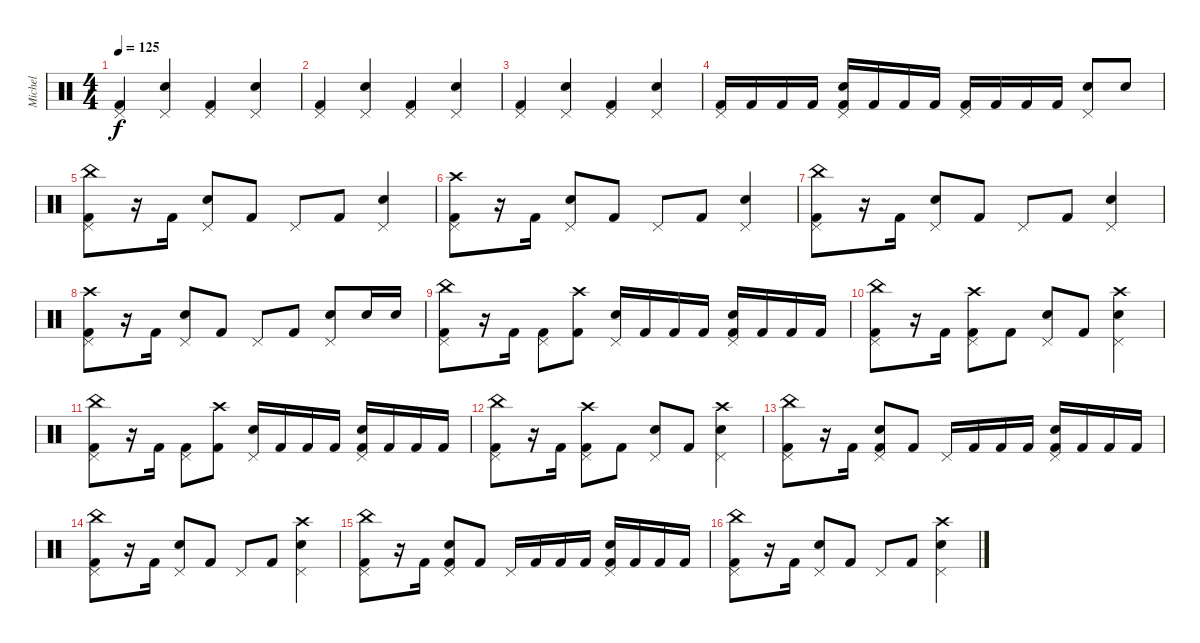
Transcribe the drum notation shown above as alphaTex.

\track ("Michel" "Michel") {instrument percussion}
\staff {score}
\articulation defaults
\ts (4 4)
\tempo 125
\clef neutral
\ks c
("Kick (hit) 2" "Pedal Hi-Hat (hit)").4{dy f} ("Snare (hit) 2" "Pedal Hi-Hat (hit)").4 ("Kick (hit) 2" "Pedal Hi-Hat (hit)").4 ("Snare (hit) 2" "Pedal Hi-Hat (hit)").4 |
("Kick (hit) 2" "Pedal Hi-Hat (hit)").4 ("Snare (hit) 2" "Pedal Hi-Hat (hit)").4 ("Kick (hit) 2" "Pedal Hi-Hat (hit)").4 ("Snare (hit) 2" "Pedal Hi-Hat (hit)").4 |
("Kick (hit) 2" "Pedal Hi-Hat (hit)").4 ("Snare (hit) 2" "Pedal Hi-Hat (hit)").4 ("Kick (hit) 2" "Pedal Hi-Hat (hit)").4 ("Snare (hit) 2" "Pedal Hi-Hat (hit)").4 |
("Kick (hit) 2" "Pedal Hi-Hat (hit)").16 "Kick (hit) 2".16 "Kick (hit) 2".16 "Kick (hit) 2".16 ("Snare (hit) 2" "Kick (hit) 2" "Pedal Hi-Hat (hit)").16 "Kick (hit) 2".16 "Kick (hit) 2".16 "Kick (hit) 2".16 ("Kick (hit) 2" "Pedal Hi-Hat (hit)").16 "Kick (hit) 2".16 "Kick (hit) 2".16 "Kick (hit) 2".16 ("Snare (hit) 2" "Pedal Hi-Hat (hit)").8 "Snare (hit) 2".8 |
("China (hit)" "Kick (hit) 2" "Pedal Hi-Hat (hit)").8 r.16 "Kick (hit) 2".16 ("Snare (hit) 2" "Pedal Hi-Hat (hit)").8 "Kick (hit) 2".8 "Pedal Hi-Hat (hit)".8 "Kick (hit) 2".8 ("Snare (hit) 2" "Pedal Hi-Hat (hit)").4 |
("Crash high (hit)" "Kick (hit) 2" "Pedal Hi-Hat (hit)").8 r.16 "Kick (hit) 2".16 ("Snare (hit) 2" "Pedal Hi-Hat (hit)").8 "Kick (hit) 2".8 "Pedal Hi-Hat (hit)".8 "Kick (hit) 2".8 ("Snare (hit) 2" "Pedal Hi-Hat (hit)").4 |
("China (hit)" "Kick (hit) 2" "Pedal Hi-Hat (hit)").8 r.16 "Kick (hit) 2".16 ("Snare (hit) 2" "Pedal Hi-Hat (hit)").8 "Kick (hit) 2".8 "Pedal Hi-Hat (hit)".8 "Kick (hit) 2".8 ("Snare (hit) 2" "Pedal Hi-Hat (hit)").4 |
("Crash high (hit)" "Kick (hit) 2" "Pedal Hi-Hat (hit)").8 r.16 "Kick (hit) 2".16 ("Snare (hit) 2" "Pedal Hi-Hat (hit)").8 "Kick (hit) 2".8 "Pedal Hi-Hat (hit)".8 "Kick (hit) 2".8 ("Snare (hit) 2" "Pedal Hi-Hat (hit)").8 "Snare (hit) 2".16 "Snare (hit) 2".16 |
("China (hit)" "Kick (hit) 2" "Pedal Hi-Hat (hit)").8 r.16 "Kick (hit) 2".16 ("Kick (hit) 2" "Pedal Hi-Hat (hit)").8 ("Crash high (hit)" "Kick (hit) 2").8 ("Snare (hit) 2" "Pedal Hi-Hat (hit)").16 "Kick (hit) 2".16 "Kick (hit) 2".16 "Kick (hit) 2".16 ("Snare (hit) 2" "Kick (hit) 2" "Pedal Hi-Hat (hit)").16 "Kick (hit) 2".16 "Kick (hit) 2".16 "Kick (hit) 2".16 |
("China (hit)" "Kick (hit) 2" "Pedal Hi-Hat (hit)").8 r.16 "Kick (hit) 2".16 ("Crash high (hit)" "Kick (hit) 2" "Pedal Hi-Hat (hit)").8 "Kick (hit) 2".8 ("Snare (hit) 2" "Pedal Hi-Hat (hit)").8 "Kick (hit) 2".8 ("Crash high (hit)" "Snare (hit) 2" "Pedal Hi-Hat (hit)").4 |
("China (hit)" "Kick (hit) 2" "Pedal Hi-Hat (hit)").8 r.16 "Kick (hit) 2".16 ("Kick (hit) 2" "Pedal Hi-Hat (hit)").8 ("Crash high (hit)" "Kick (hit) 2").8 ("Snare (hit) 2" "Pedal Hi-Hat (hit)").16 "Kick (hit) 2".16 "Kick (hit) 2".16 "Kick (hit) 2".16 ("Snare (hit) 2" "Kick (hit) 2" "Pedal Hi-Hat (hit)").16 "Kick (hit) 2".16 "Kick (hit) 2".16 "Kick (hit) 2".16 |
("China (hit)" "Kick (hit) 2" "Pedal Hi-Hat (hit)").8 r.16 "Kick (hit) 2".16 ("Crash high (hit)" "Kick (hit) 2" "Pedal Hi-Hat (hit)").8 "Kick (hit) 2".8 ("Snare (hit) 2" "Pedal Hi-Hat (hit)").8 "Kick (hit) 2".8 ("Crash high (hit)" "Snare (hit) 2" "Pedal Hi-Hat (hit)").4 |
("China (hit)" "Kick (hit) 2" "Pedal Hi-Hat (hit)").8 r.16 "Kick (hit) 2".16 ("Snare (hit) 2" "Kick (hit) 2" "Pedal Hi-Hat (hit)").8 "Kick (hit) 2".8 "Pedal Hi-Hat (hit)".16 "Kick (hit) 2".16 "Kick (hit) 2".16 "Kick (hit) 2".16 ("Snare (hit) 2" "Kick (hit) 2" "Pedal Hi-Hat (hit)").16 "Kick (hit) 2".16 "Kick (hit) 2".16 "Kick (hit) 2".16 |
("China (hit)" "Kick (hit) 2" "Pedal Hi-Hat (hit)").8 r.16 "Kick (hit) 2".16 ("Snare (hit) 2" "Pedal Hi-Hat (hit)").8 "Kick (hit) 2".8 "Pedal Hi-Hat (hit)".8 "Kick (hit) 2".8 ("Crash high (hit)" "Snare (hit) 2" "Pedal Hi-Hat (hit)").4 |
("China (hit)" "Kick (hit) 2" "Pedal Hi-Hat (hit)").8 r.16 "Kick (hit) 2".16 ("Snare (hit) 2" "Kick (hit) 2" "Pedal Hi-Hat (hit)").8 "Kick (hit) 2".8 "Pedal Hi-Hat (hit)".16 "Kick (hit) 2".16 "Kick (hit) 2".16 "Kick (hit) 2".16 ("Snare (hit) 2" "Kick (hit) 2" "Pedal Hi-Hat (hit)").16 "Kick (hit) 2".16 "Kick (hit) 2".16 "Kick (hit) 2".16 |
("China (hit)" "Kick (hit) 2" "Pedal Hi-Hat (hit)").8 r.16 "Kick (hit) 2".16 ("Snare (hit) 2" "Pedal Hi-Hat (hit)").8 "Kick (hit) 2".8 "Pedal Hi-Hat (hit)".8 "Kick (hit) 2".8 ("Crash high (hit)" "Snare (hit) 2" "Pedal Hi-Hat (hit)").4
